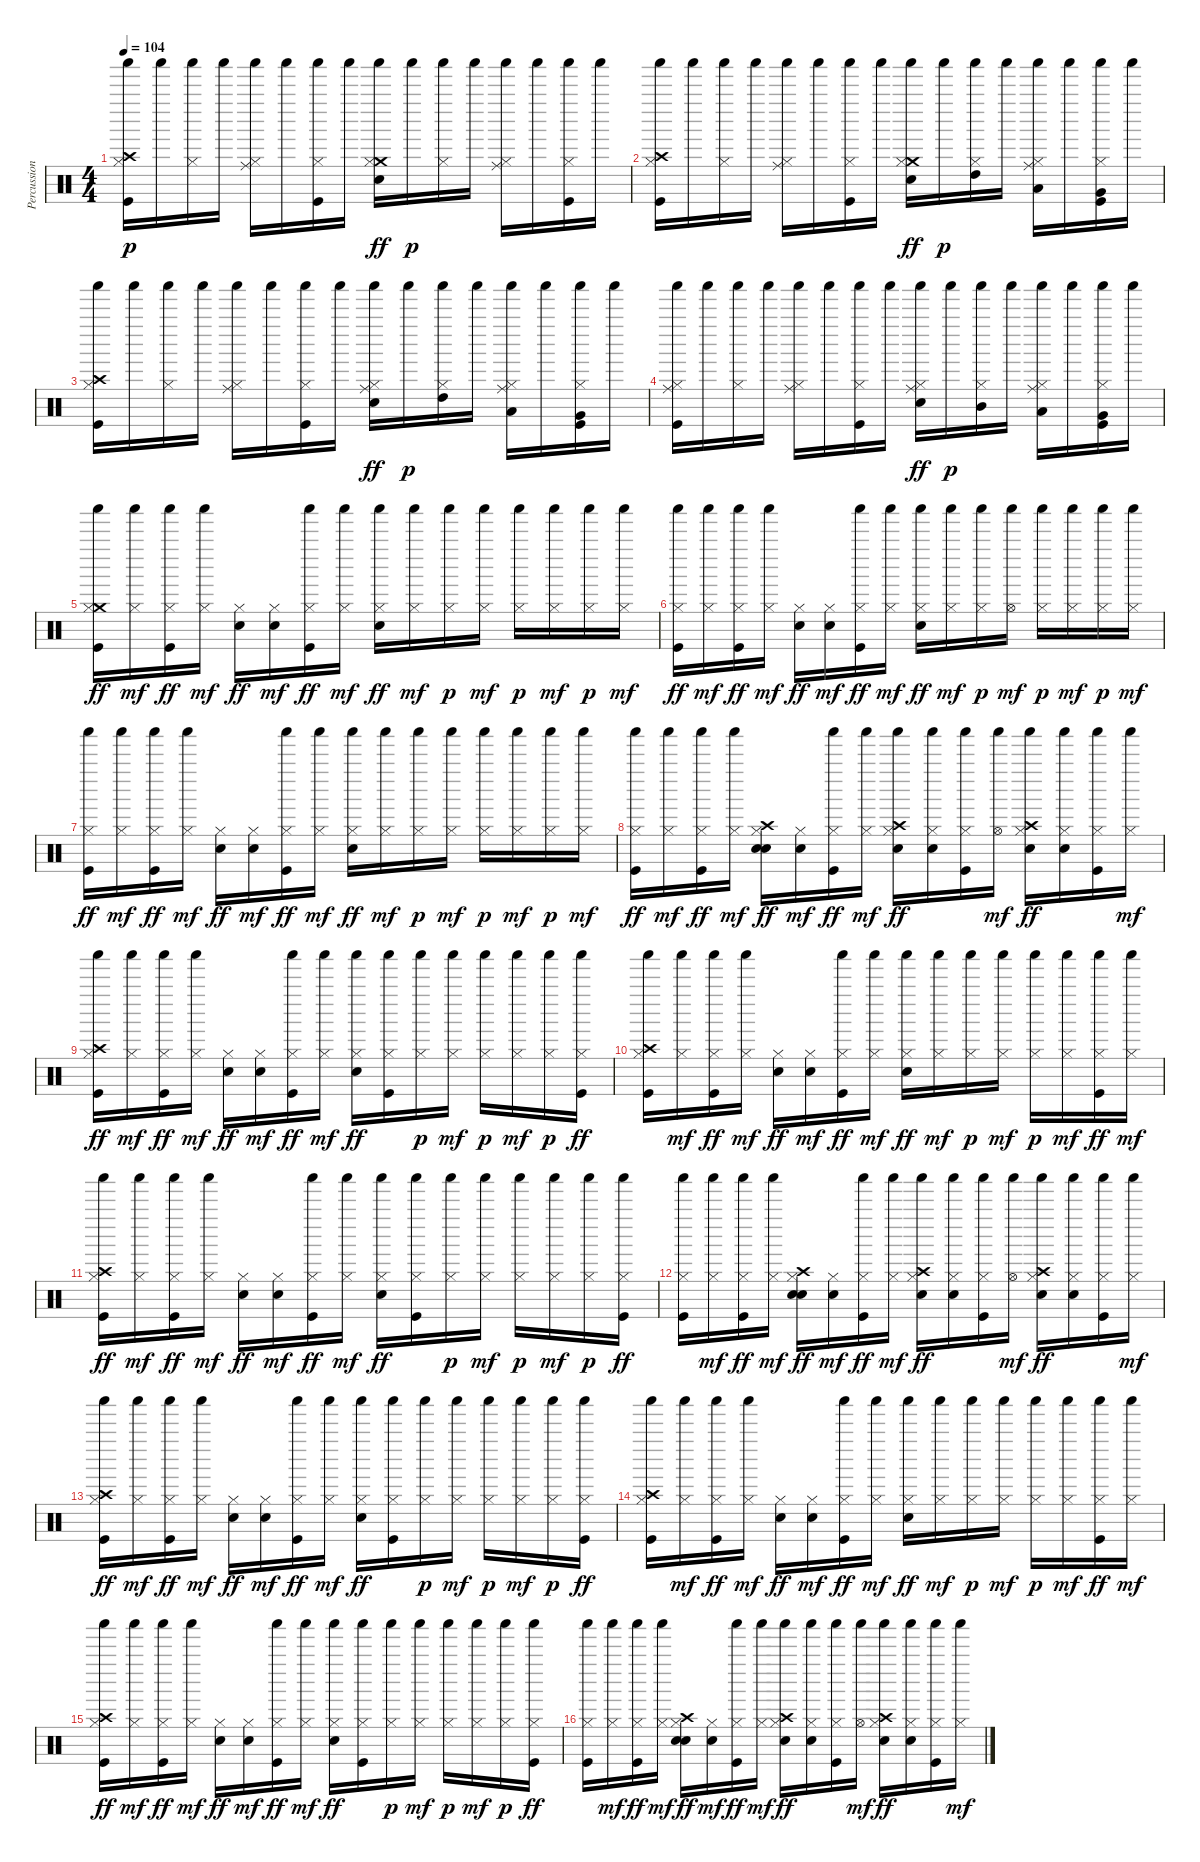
\track ("Percussioni" "Percussion") {instrument percussion}
\staff {score}
\articulation defaults
\ts (4 4)
\tempo 104
\clef neutral
\ks c
("Crash high (hit)" "Shaker (hit)" "Hi-Hat (closed)" "Kick (hit)").16{dy p} "Shaker (hit)".16 ("Shaker (hit)" "Hi-Hat (closed)").16 "Shaker (hit)".16 ("Ride (middle)" "Shaker (hit)" "Hi-Hat (closed)").16 "Shaker (hit)".16 ("Shaker (hit)" "Hi-Hat (closed)" "Kick (hit)").16 "Shaker (hit)".16 ("Crash medium (hit)" "Shaker (hit)" "Hi-Hat (closed)" "Snare (hit) 2").16{dy ff} "Shaker (hit)".16{dy p} ("Shaker (hit)" "Hi-Hat (closed)").16 "Shaker (hit)".16 ("Ride (middle)" "Shaker (hit)" "Hi-Hat (closed)").16 "Shaker (hit)".16 ("Shaker (hit)" "Hi-Hat (closed)" "Kick (hit)").16 "Shaker (hit)".16 |
("Crash high (hit)" "Shaker (hit)" "Hi-Hat (closed)" "Kick (hit)").16 "Shaker (hit)".16 ("Shaker (hit)" "Hi-Hat (closed)").16 "Shaker (hit)".16 ("Ride (middle)" "Shaker (hit)" "Hi-Hat (closed)").16 "Shaker (hit)".16 ("Shaker (hit)" "Hi-Hat (closed)" "Kick (hit)").16 "Shaker (hit)".16 ("Crash medium (hit)" "Shaker (hit)" "Hi-Hat (closed)" "Snare (hit) 2").16{dy ff} "Shaker (hit)".16{dy p} ("High Tom (hit)" "Shaker (hit)" "Hi-Hat (closed)").16 "Shaker (hit)".16 ("Ride (middle)" "Low Tom (hit)" "Shaker (hit)" "Hi-Hat (closed)").16 "Shaker (hit)".16 ("Very Low Tom (hit)" "Shaker (hit)" "Hi-Hat (closed)" "Kick (hit)").16 "Shaker (hit)".16 |
("Crash high (hit)" "Shaker (hit)" "Hi-Hat (closed)" "Kick (hit)").16 "Shaker (hit)".16 ("Shaker (hit)" "Hi-Hat (closed)").16 "Shaker (hit)".16 ("Ride (middle)" "Shaker (hit)" "Hi-Hat (closed)").16 "Shaker (hit)".16 ("Shaker (hit)" "Hi-Hat (closed)" "Kick (hit)").16 "Shaker (hit)".16 ("Ride (middle)" "Shaker (hit)" "Hi-Hat (closed)" "Snare (hit) 2").16{dy ff} "Shaker (hit)".16{dy p} ("High Tom (hit)" "Shaker (hit)" "Hi-Hat (closed)").16 "Shaker (hit)".16 ("Ride (middle)" "Low Tom (hit)" "Shaker (hit)" "Hi-Hat (closed)").16 "Shaker (hit)".16 ("Very Low Tom (hit)" "Shaker (hit)" "Hi-Hat (closed)" "Kick (hit)").16 "Shaker (hit)".16 |
("Ride (middle)" "Shaker (hit)" "Hi-Hat (closed)" "Kick (hit)").16 "Shaker (hit)".16 ("Shaker (hit)" "Hi-Hat (closed)").16 "Shaker (hit)".16 ("Ride (middle)" "Shaker (hit)" "Hi-Hat (closed)").16 "Shaker (hit)".16 ("Shaker (hit)" "Hi-Hat (closed)" "Kick (hit)").16 "Shaker (hit)".16 ("Ride (middle)" "Shaker (hit)" "Hi-Hat (closed)" "Snare (hit) 2").16{dy ff} "Shaker (hit)".16{dy p} ("Mid Tom (hit)" "Shaker (hit)" "Hi-Hat (closed)").16 "Shaker (hit)".16 ("Ride (middle)" "Low Tom (hit)" "Shaker (hit)" "Hi-Hat (closed)").16 "Shaker (hit)".16 ("Very Low Tom (hit)" "Shaker (hit)" "Hi-Hat (closed)" "Kick (hit)").16 "Shaker (hit)".16 |
("Crash medium (hit)" "Shaker (hit)" "Hi-Hat (closed)" "Kick (hit)").16{dy ff} ("Shaker (hit)" "Hi-Hat (closed)").16{dy mf} ("Shaker (hit)" "Hi-Hat (closed)" "Kick (hit)").16{dy ff} ("Shaker (hit)" "Hi-Hat (closed)").16{dy mf} ("Hand Clap (hit)" "Hi-Hat (closed)").16{dy ff} ("Hand Clap (hit)" "Hi-Hat (closed)").16{dy mf} ("Shaker (hit)" "Hi-Hat (closed)" "Kick (hit)").16{dy ff} ("Shaker (hit)" "Hi-Hat (closed)").16{dy mf} ("Shaker (hit)" "Hi-Hat (closed)" "Snare (hit) 2").16{dy ff} ("Shaker (hit)" "Hi-Hat (closed)").16{dy mf} ("Shaker (hit)" "Hi-Hat (closed)").16{dy p} ("Shaker (hit)" "Hi-Hat (closed)").16{dy mf} ("Shaker (hit)" "Hi-Hat (closed)").16{dy p} ("Shaker (hit)" "Hi-Hat (closed)").16{dy mf} ("Shaker (hit)" "Hi-Hat (closed)").16{dy p} ("Shaker (hit)" "Hi-Hat (closed)").16{dy mf} |
("Shaker (hit)" "Hi-Hat (closed)" "Kick (hit)").16{dy ff} ("Shaker (hit)" "Hi-Hat (closed)").16{dy mf} ("Shaker (hit)" "Hi-Hat (closed)" "Kick (hit)").16{dy ff} ("Shaker (hit)" "Hi-Hat (closed)").16{dy mf} ("Hand Clap (hit)" "Hi-Hat (closed)").16{dy ff} ("Hand Clap (hit)" "Hi-Hat (closed)").16{dy mf} ("Shaker (hit)" "Hi-Hat (closed)" "Kick (hit)").16{dy ff} ("Shaker (hit)" "Hi-Hat (closed)").16{dy mf} ("Shaker (hit)" "Hi-Hat (closed)" "Snare (hit) 2").16{dy ff} ("Shaker (hit)" "Hi-Hat (closed)").16{dy mf} ("Shaker (hit)" "Hi-Hat (closed)").16{dy p} ("Shaker (hit)" "Hi-Hat (open)").16{dy mf} ("Shaker (hit)" "Hi-Hat (closed)").16{dy p} ("Shaker (hit)" "Hi-Hat (closed)").16{dy mf} ("Shaker (hit)" "Hi-Hat (closed)").16{dy p} ("Shaker (hit)" "Hi-Hat (closed)").16{dy mf} |
("Shaker (hit)" "Hi-Hat (closed)" "Kick (hit)").16{dy ff} ("Shaker (hit)" "Hi-Hat (closed)").16{dy mf} ("Shaker (hit)" "Hi-Hat (closed)" "Kick (hit)").16{dy ff} ("Shaker (hit)" "Hi-Hat (closed)").16{dy mf} ("Hand Clap (hit)" "Hi-Hat (closed)").16{dy ff} ("Hand Clap (hit)" "Hi-Hat (closed)").16{dy mf} ("Shaker (hit)" "Hi-Hat (closed)" "Kick (hit)").16{dy ff} ("Shaker (hit)" "Hi-Hat (closed)").16{dy mf} ("Shaker (hit)" "Hi-Hat (closed)" "Snare (hit) 2").16{dy ff} ("Shaker (hit)" "Hi-Hat (closed)").16{dy mf} ("Shaker (hit)" "Hi-Hat (closed)").16{dy p} ("Shaker (hit)" "Hi-Hat (closed)").16{dy mf} ("Shaker (hit)" "Hi-Hat (closed)").16{dy p} ("Shaker (hit)" "Hi-Hat (closed)").16{dy mf} ("Shaker (hit)" "Hi-Hat (closed)").16{dy p} ("Shaker (hit)" "Hi-Hat (closed)").16{dy mf} |
("Shaker (hit)" "Hi-Hat (closed)" "Kick (hit)").16{dy ff} ("Shaker (hit)" "Hi-Hat (closed)").16{dy mf} ("Shaker (hit)" "Hi-Hat (closed)" "Kick (hit)").16{dy ff} ("Shaker (hit)" "Hi-Hat (closed)").16{dy mf} ("Crash high (hit)" "Hand Clap (hit)" "Hi-Hat (closed)" "Snare (hit) 2").16{dy ff} ("Hand Clap (hit)" "Hi-Hat (closed)").16{dy mf} ("Shaker (hit)" "Hi-Hat (closed)" "Kick (hit)").16{dy ff} ("Shaker (hit)" "Hi-Hat (closed)").16{dy mf} ("Crash high (hit)" "Shaker (hit)" "Hi-Hat (closed)" "Snare (hit) 2").16{dy ff} ("Shaker (hit)" "Hi-Hat (closed)" "Snare (hit) 2").16 ("Shaker (hit)" "Hi-Hat (closed)" "Kick (hit)").16 ("Shaker (hit)" "Hi-Hat (open)").16{dy mf} ("Crash high (hit)" "Shaker (hit)" "Hi-Hat (closed)" "Snare (hit) 2").16{dy ff} ("Shaker (hit)" "Hi-Hat (closed)" "Snare (hit) 2").16 ("Shaker (hit)" "Hi-Hat (closed)" "Kick (hit)").16 ("Shaker (hit)" "Hi-Hat (closed)").16{dy mf} |
("Crash high (hit)" "Shaker (hit)" "Hi-Hat (closed)" "Kick (hit)").16{dy ff} ("Shaker (hit)" "Hi-Hat (closed)").16{dy mf} ("Shaker (hit)" "Hi-Hat (closed)" "Kick (hit)").16{dy ff} ("Shaker (hit)" "Hi-Hat (closed)").16{dy mf} ("Hand Clap (hit)" "Hi-Hat (closed)").16{dy ff} ("Hand Clap (hit)" "Hi-Hat (closed)").16{dy mf} ("Shaker (hit)" "Hi-Hat (closed)" "Kick (hit)").16{dy ff} ("Shaker (hit)" "Hi-Hat (closed)").16{dy mf} ("Shaker (hit)" "Hi-Hat (closed)" "Snare (hit) 2").16{dy ff} ("Shaker (hit)" "Hi-Hat (closed)" "Kick (hit)").16 ("Shaker (hit)" "Hi-Hat (closed)").16{dy p} ("Shaker (hit)" "Hi-Hat (closed)").16{dy mf} ("Shaker (hit)" "Hi-Hat (closed)").16{dy p} ("Shaker (hit)" "Hi-Hat (closed)").16{dy mf} ("Shaker (hit)" "Hi-Hat (closed)").16{dy p} ("Shaker (hit)" "Hi-Hat (closed)" "Kick (hit)").16{dy ff} |
("Crash high (hit)" "Shaker (hit)" "Hi-Hat (closed)" "Kick (hit)").16 ("Shaker (hit)" "Hi-Hat (closed)").16{dy mf} ("Shaker (hit)" "Hi-Hat (closed)" "Kick (hit)").16{dy ff} ("Shaker (hit)" "Hi-Hat (closed)").16{dy mf} ("Hand Clap (hit)" "Hi-Hat (closed)").16{dy ff} ("Hand Clap (hit)" "Hi-Hat (closed)").16{dy mf} ("Shaker (hit)" "Hi-Hat (closed)" "Kick (hit)").16{dy ff} ("Shaker (hit)" "Hi-Hat (closed)").16{dy mf} ("Shaker (hit)" "Hi-Hat (closed)" "Snare (hit) 2").16{dy ff} ("Shaker (hit)" "Hi-Hat (closed)").16{dy mf} ("Shaker (hit)" "Hi-Hat (closed)").16{dy p} ("Shaker (hit)" "Hi-Hat (closed)").16{dy mf} ("Shaker (hit)" "Hi-Hat (closed)").16{dy p} ("Shaker (hit)" "Hi-Hat (closed)").16{dy mf} ("Shaker (hit)" "Hi-Hat (closed)" "Kick (hit)").16{dy ff} ("Shaker (hit)" "Hi-Hat (closed)").16{dy mf} |
("Crash high (hit)" "Shaker (hit)" "Hi-Hat (closed)" "Kick (hit)").16{dy ff} ("Shaker (hit)" "Hi-Hat (closed)").16{dy mf} ("Shaker (hit)" "Hi-Hat (closed)" "Kick (hit)").16{dy ff} ("Shaker (hit)" "Hi-Hat (closed)").16{dy mf} ("Hand Clap (hit)" "Hi-Hat (closed)").16{dy ff} ("Hand Clap (hit)" "Hi-Hat (closed)").16{dy mf} ("Shaker (hit)" "Hi-Hat (closed)" "Kick (hit)").16{dy ff} ("Shaker (hit)" "Hi-Hat (closed)").16{dy mf} ("Shaker (hit)" "Hi-Hat (closed)" "Snare (hit) 2").16{dy ff} ("Shaker (hit)" "Hi-Hat (closed)" "Kick (hit)").16 ("Shaker (hit)" "Hi-Hat (closed)").16{dy p} ("Shaker (hit)" "Hi-Hat (closed)").16{dy mf} ("Shaker (hit)" "Hi-Hat (closed)").16{dy p} ("Shaker (hit)" "Hi-Hat (closed)").16{dy mf} ("Shaker (hit)" "Hi-Hat (closed)").16{dy p} ("Shaker (hit)" "Hi-Hat (closed)" "Kick (hit)").16{dy ff} |
("Shaker (hit)" "Hi-Hat (closed)" "Kick (hit)").16 ("Shaker (hit)" "Hi-Hat (closed)").16{dy mf} ("Shaker (hit)" "Hi-Hat (closed)" "Kick (hit)").16{dy ff} ("Shaker (hit)" "Hi-Hat (closed)").16{dy mf} ("Crash high (hit)" "Hand Clap (hit)" "Hi-Hat (closed)" "Snare (hit) 2").16{dy ff} ("Hand Clap (hit)" "Hi-Hat (closed)").16{dy mf} ("Shaker (hit)" "Hi-Hat (closed)" "Kick (hit)").16{dy ff} ("Shaker (hit)" "Hi-Hat (closed)").16{dy mf} ("Crash high (hit)" "Shaker (hit)" "Hi-Hat (closed)" "Snare (hit) 2").16{dy ff} ("Shaker (hit)" "Hi-Hat (closed)" "Snare (hit) 2").16 ("Shaker (hit)" "Hi-Hat (closed)" "Kick (hit)").16 ("Shaker (hit)" "Hi-Hat (open)").16{dy mf} ("Crash high (hit)" "Shaker (hit)" "Hi-Hat (closed)" "Snare (hit) 2").16{dy ff} ("Shaker (hit)" "Hi-Hat (closed)" "Snare (hit) 2").16 ("Shaker (hit)" "Hi-Hat (closed)" "Kick (hit)").16 ("Shaker (hit)" "Hi-Hat (closed)").16{dy mf} |
("Crash high (hit)" "Shaker (hit)" "Hi-Hat (closed)" "Kick (hit)").16{dy ff} ("Shaker (hit)" "Hi-Hat (closed)").16{dy mf} ("Shaker (hit)" "Hi-Hat (closed)" "Kick (hit)").16{dy ff} ("Shaker (hit)" "Hi-Hat (closed)").16{dy mf} ("Hand Clap (hit)" "Hi-Hat (closed)").16{dy ff} ("Hand Clap (hit)" "Hi-Hat (closed)").16{dy mf} ("Shaker (hit)" "Hi-Hat (closed)" "Kick (hit)").16{dy ff} ("Shaker (hit)" "Hi-Hat (closed)").16{dy mf} ("Shaker (hit)" "Hi-Hat (closed)" "Snare (hit) 2").16{dy ff} ("Shaker (hit)" "Hi-Hat (closed)" "Kick (hit)").16 ("Shaker (hit)" "Hi-Hat (closed)").16{dy p} ("Shaker (hit)" "Hi-Hat (closed)").16{dy mf} ("Shaker (hit)" "Hi-Hat (closed)").16{dy p} ("Shaker (hit)" "Hi-Hat (closed)").16{dy mf} ("Shaker (hit)" "Hi-Hat (closed)").16{dy p} ("Shaker (hit)" "Hi-Hat (closed)" "Kick (hit)").16{dy ff} |
("Crash high (hit)" "Shaker (hit)" "Hi-Hat (closed)" "Kick (hit)").16 ("Shaker (hit)" "Hi-Hat (closed)").16{dy mf} ("Shaker (hit)" "Hi-Hat (closed)" "Kick (hit)").16{dy ff} ("Shaker (hit)" "Hi-Hat (closed)").16{dy mf} ("Hand Clap (hit)" "Hi-Hat (closed)").16{dy ff} ("Hand Clap (hit)" "Hi-Hat (closed)").16{dy mf} ("Shaker (hit)" "Hi-Hat (closed)" "Kick (hit)").16{dy ff} ("Shaker (hit)" "Hi-Hat (closed)").16{dy mf} ("Shaker (hit)" "Hi-Hat (closed)" "Snare (hit) 2").16{dy ff} ("Shaker (hit)" "Hi-Hat (closed)").16{dy mf} ("Shaker (hit)" "Hi-Hat (closed)").16{dy p} ("Shaker (hit)" "Hi-Hat (closed)").16{dy mf} ("Shaker (hit)" "Hi-Hat (closed)").16{dy p} ("Shaker (hit)" "Hi-Hat (closed)").16{dy mf} ("Shaker (hit)" "Hi-Hat (closed)" "Kick (hit)").16{dy ff} ("Shaker (hit)" "Hi-Hat (closed)").16{dy mf} |
("Crash high (hit)" "Shaker (hit)" "Hi-Hat (closed)" "Kick (hit)").16{dy ff} ("Shaker (hit)" "Hi-Hat (closed)").16{dy mf} ("Shaker (hit)" "Hi-Hat (closed)" "Kick (hit)").16{dy ff} ("Shaker (hit)" "Hi-Hat (closed)").16{dy mf} ("Hand Clap (hit)" "Hi-Hat (closed)").16{dy ff} ("Hand Clap (hit)" "Hi-Hat (closed)").16{dy mf} ("Shaker (hit)" "Hi-Hat (closed)" "Kick (hit)").16{dy ff} ("Shaker (hit)" "Hi-Hat (closed)").16{dy mf} ("Shaker (hit)" "Hi-Hat (closed)" "Snare (hit) 2").16{dy ff} ("Shaker (hit)" "Hi-Hat (closed)" "Kick (hit)").16 ("Shaker (hit)" "Hi-Hat (closed)").16{dy p} ("Shaker (hit)" "Hi-Hat (closed)").16{dy mf} ("Shaker (hit)" "Hi-Hat (closed)").16{dy p} ("Shaker (hit)" "Hi-Hat (closed)").16{dy mf} ("Shaker (hit)" "Hi-Hat (closed)").16{dy p} ("Shaker (hit)" "Hi-Hat (closed)" "Kick (hit)").16{dy ff} |
("Shaker (hit)" "Hi-Hat (closed)" "Kick (hit)").16 ("Shaker (hit)" "Hi-Hat (closed)").16{dy mf} ("Shaker (hit)" "Hi-Hat (closed)" "Kick (hit)").16{dy ff} ("Shaker (hit)" "Hi-Hat (closed)").16{dy mf} ("Crash high (hit)" "Hand Clap (hit)" "Hi-Hat (closed)" "Snare (hit) 2").16{dy ff} ("Hand Clap (hit)" "Hi-Hat (closed)").16{dy mf} ("Shaker (hit)" "Hi-Hat (closed)" "Kick (hit)").16{dy ff} ("Shaker (hit)" "Hi-Hat (closed)").16{dy mf} ("Crash high (hit)" "Shaker (hit)" "Hi-Hat (closed)" "Snare (hit) 2").16{dy ff} ("Shaker (hit)" "Hi-Hat (closed)" "Snare (hit) 2").16 ("Shaker (hit)" "Hi-Hat (closed)" "Kick (hit)").16 ("Shaker (hit)" "Hi-Hat (open)").16{dy mf} ("Crash high (hit)" "Shaker (hit)" "Hi-Hat (closed)" "Snare (hit) 2").16{dy ff} ("Shaker (hit)" "Hi-Hat (closed)" "Snare (hit) 2").16 ("Shaker (hit)" "Hi-Hat (closed)" "Kick (hit)").16 ("Shaker (hit)" "Hi-Hat (closed)").16{dy mf}
